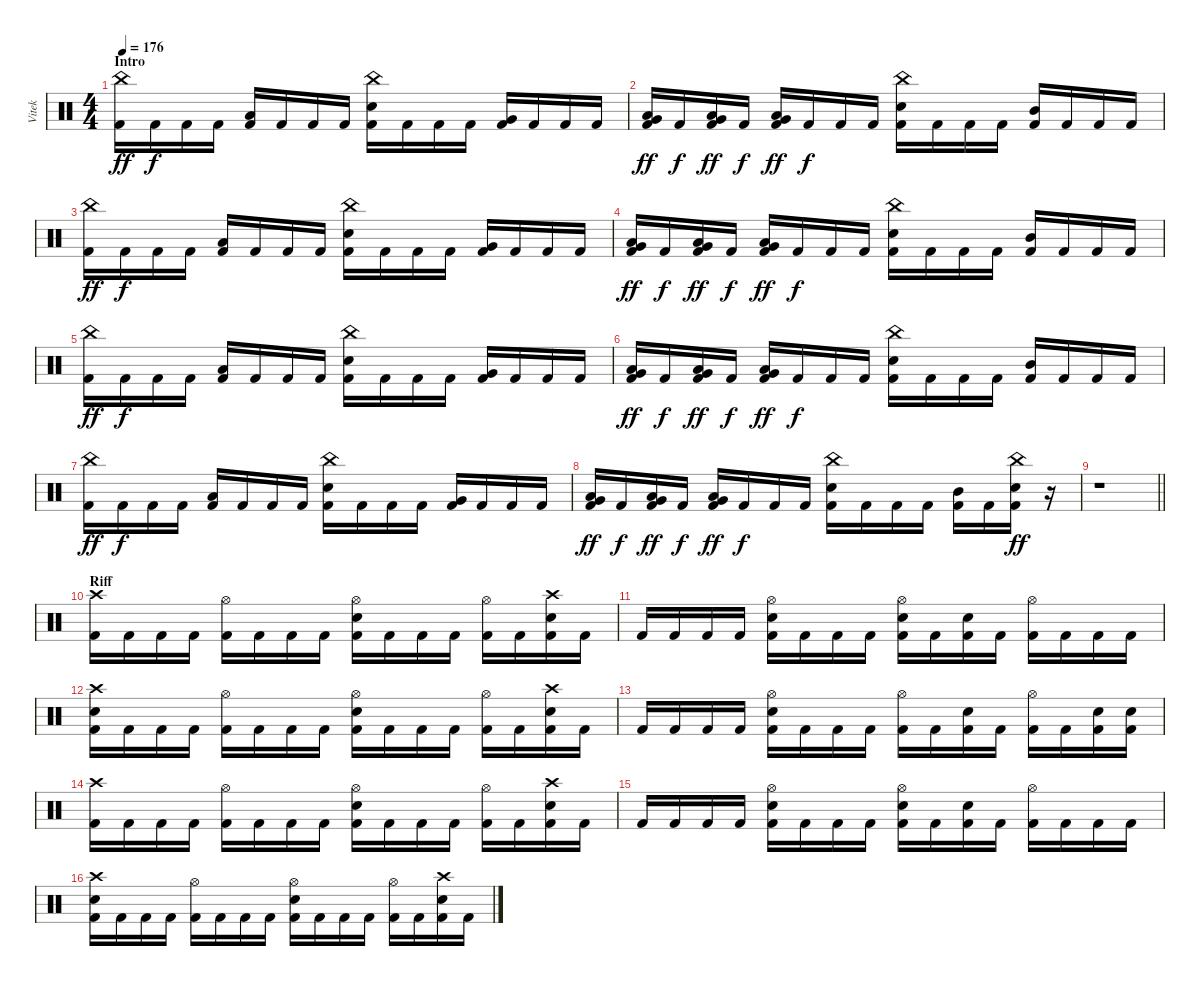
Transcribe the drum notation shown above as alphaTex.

\track ("Vitek" "Vitek") {instrument percussion}
\staff {score}
\articulation defaults
\ts (4 4)
\section ("" "Intro")
\tempo 176
\clef neutral
\ks c
("China (hit)" "Kick (hit) 2").16{dy ff} "Kick (hit) 2".16{dy f} "Kick (hit) 2".16 "Kick (hit) 2".16 ("Low Tom (hit)" "Kick (hit) 2").16 "Kick (hit) 2".16 "Kick (hit) 2".16 "Kick (hit) 2".16 ("China (hit)" "Electric Snare (hit)" "Kick (hit) 2").16 "Kick (hit) 2".16 "Kick (hit) 2".16 "Kick (hit) 2".16 ("Very Low Tom (hit)" "Kick (hit) 2").16 "Kick (hit) 2".16 "Kick (hit) 2".16 "Kick (hit) 2".16 |
("Low Tom (hit)" "Very Low Tom (hit)" "Kick (hit) 2").16{dy ff} "Kick (hit) 2".16{dy f} ("Low Tom (hit)" "Very Low Tom (hit)" "Kick (hit) 2").16{dy ff} "Kick (hit) 2".16{dy f} ("Low Tom (hit)" "Very Low Tom (hit)" "Kick (hit) 2").16{dy ff} "Kick (hit) 2".16{dy f} "Kick (hit) 2".16 "Kick (hit) 2".16 ("China (hit)" "Electric Snare (hit)" "Kick (hit) 2").16 "Kick (hit) 2".16 "Kick (hit) 2".16 "Kick (hit) 2".16 ("Mid Tom (hit)" "Kick (hit) 2").16 "Kick (hit) 2".16 "Kick (hit) 2".16 "Kick (hit) 2".16 |
("China (hit)" "Kick (hit) 2").16{dy ff} "Kick (hit) 2".16{dy f} "Kick (hit) 2".16 "Kick (hit) 2".16 ("Low Tom (hit)" "Kick (hit) 2").16 "Kick (hit) 2".16 "Kick (hit) 2".16 "Kick (hit) 2".16 ("China (hit)" "Electric Snare (hit)" "Kick (hit) 2").16 "Kick (hit) 2".16 "Kick (hit) 2".16 "Kick (hit) 2".16 ("Very Low Tom (hit)" "Kick (hit) 2").16 "Kick (hit) 2".16 "Kick (hit) 2".16 "Kick (hit) 2".16 |
("Low Tom (hit)" "Very Low Tom (hit)" "Kick (hit) 2").16{dy ff} "Kick (hit) 2".16{dy f} ("Low Tom (hit)" "Very Low Tom (hit)" "Kick (hit) 2").16{dy ff} "Kick (hit) 2".16{dy f} ("Low Tom (hit)" "Very Low Tom (hit)" "Kick (hit) 2").16{dy ff} "Kick (hit) 2".16{dy f} "Kick (hit) 2".16 "Kick (hit) 2".16 ("China (hit)" "Electric Snare (hit)" "Kick (hit) 2").16 "Kick (hit) 2".16 "Kick (hit) 2".16 "Kick (hit) 2".16 ("Mid Tom (hit)" "Kick (hit) 2").16 "Kick (hit) 2".16 "Kick (hit) 2".16 "Kick (hit) 2".16 |
("China (hit)" "Kick (hit) 2").16{dy ff} "Kick (hit) 2".16{dy f} "Kick (hit) 2".16 "Kick (hit) 2".16 ("Low Tom (hit)" "Kick (hit) 2").16 "Kick (hit) 2".16 "Kick (hit) 2".16 "Kick (hit) 2".16 ("China (hit)" "Electric Snare (hit)" "Kick (hit) 2").16 "Kick (hit) 2".16 "Kick (hit) 2".16 "Kick (hit) 2".16 ("Very Low Tom (hit)" "Kick (hit) 2").16 "Kick (hit) 2".16 "Kick (hit) 2".16 "Kick (hit) 2".16 |
("Low Tom (hit)" "Very Low Tom (hit)" "Kick (hit) 2").16{dy ff} "Kick (hit) 2".16{dy f} ("Low Tom (hit)" "Very Low Tom (hit)" "Kick (hit) 2").16{dy ff} "Kick (hit) 2".16{dy f} ("Low Tom (hit)" "Very Low Tom (hit)" "Kick (hit) 2").16{dy ff} "Kick (hit) 2".16{dy f} "Kick (hit) 2".16 "Kick (hit) 2".16 ("China (hit)" "Electric Snare (hit)" "Kick (hit) 2").16 "Kick (hit) 2".16 "Kick (hit) 2".16 "Kick (hit) 2".16 ("Mid Tom (hit)" "Kick (hit) 2").16 "Kick (hit) 2".16 "Kick (hit) 2".16 "Kick (hit) 2".16 |
("China (hit)" "Kick (hit) 2").16{dy ff} "Kick (hit) 2".16{dy f} "Kick (hit) 2".16 "Kick (hit) 2".16 ("Low Tom (hit)" "Kick (hit) 2").16 "Kick (hit) 2".16 "Kick (hit) 2".16 "Kick (hit) 2".16 ("China (hit)" "Electric Snare (hit)" "Kick (hit) 2").16 "Kick (hit) 2".16 "Kick (hit) 2".16 "Kick (hit) 2".16 ("Very Low Tom (hit)" "Kick (hit) 2").16 "Kick (hit) 2".16 "Kick (hit) 2".16 "Kick (hit) 2".16 |
("Low Tom (hit)" "Very Low Tom (hit)" "Kick (hit) 2").16{dy ff} "Kick (hit) 2".16{dy f} ("Low Tom (hit)" "Very Low Tom (hit)" "Kick (hit) 2").16{dy ff} "Kick (hit) 2".16{dy f} ("Low Tom (hit)" "Very Low Tom (hit)" "Kick (hit) 2").16{dy ff} "Kick (hit) 2".16{dy f} "Kick (hit) 2".16 "Kick (hit) 2".16 ("China (hit)" "Electric Snare (hit)" "Kick (hit) 2").16 "Kick (hit) 2".16 "Kick (hit) 2".16 "Kick (hit) 2".16 ("Mid Tom (hit)" "Kick (hit) 2").16 "Kick (hit) 2".16 ("China (hit)" "Electric Snare (hit)" "Kick (hit) 2").16{dy ff} r.16 |
\barLineRight lightlight
r.1 |
\section ("" "Riff")
("Crash high (hit)" "Kick (hit) 2").16 "Kick (hit) 2".16 "Kick (hit) 2".16 "Kick (hit) 2".16 ("Hi-Hat (open)" "Kick (hit) 2").16 "Kick (hit) 2".16 "Kick (hit) 2".16 "Kick (hit) 2".16 ("Hi-Hat (open)" "Electric Snare (hit)" "Kick (hit) 2").16 "Kick (hit) 2".16 "Kick (hit) 2".16 "Kick (hit) 2".16 ("Hi-Hat (open)" "Kick (hit) 2").16 "Kick (hit) 2".16 ("Crash high (hit)" "Electric Snare (hit)" "Kick (hit) 2").16 "Kick (hit) 2".16 |
"Kick (hit) 2".16 "Kick (hit) 2".16 "Kick (hit) 2".16 "Kick (hit) 2".16 ("Hi-Hat (open)" "Electric Snare (hit)" "Kick (hit) 2").16 "Kick (hit) 2".16 "Kick (hit) 2".16 "Kick (hit) 2".16 ("Hi-Hat (open)" "Electric Snare (hit)" "Kick (hit) 2").16 "Kick (hit) 2".16 ("Electric Snare (hit)" "Kick (hit) 2").16 "Kick (hit) 2".16 ("Hi-Hat (open)" "Kick (hit) 2").16 "Kick (hit) 2".16 "Kick (hit) 2".16 "Kick (hit) 2".16 |
("Crash high (hit)" "Electric Snare (hit)" "Kick (hit) 2").16 "Kick (hit) 2".16 "Kick (hit) 2".16 "Kick (hit) 2".16 ("Hi-Hat (open)" "Kick (hit) 2").16 "Kick (hit) 2".16 "Kick (hit) 2".16 "Kick (hit) 2".16 ("Hi-Hat (open)" "Electric Snare (hit)" "Kick (hit) 2").16 "Kick (hit) 2".16 "Kick (hit) 2".16 "Kick (hit) 2".16 ("Hi-Hat (open)" "Kick (hit) 2").16 "Kick (hit) 2".16 ("Crash high (hit)" "Electric Snare (hit)" "Kick (hit) 2").16 "Kick (hit) 2".16 |
"Kick (hit) 2".16 "Kick (hit) 2".16 "Kick (hit) 2".16 "Kick (hit) 2".16 ("Hi-Hat (open)" "Electric Snare (hit)" "Kick (hit) 2").16 "Kick (hit) 2".16 "Kick (hit) 2".16 "Kick (hit) 2".16 ("Hi-Hat (open)" "Kick (hit) 2").16 "Kick (hit) 2".16 ("Electric Snare (hit)" "Kick (hit) 2").16 "Kick (hit) 2".16 ("Hi-Hat (open)" "Kick (hit) 2").16 "Kick (hit) 2".16 ("Electric Snare (hit)" "Kick (hit) 2").16 ("Electric Snare (hit)" "Kick (hit) 2").16 |
("Crash high (hit)" "Kick (hit) 2").16 "Kick (hit) 2".16 "Kick (hit) 2".16 "Kick (hit) 2".16 ("Hi-Hat (open)" "Kick (hit) 2").16 "Kick (hit) 2".16 "Kick (hit) 2".16 "Kick (hit) 2".16 ("Hi-Hat (open)" "Electric Snare (hit)" "Kick (hit) 2").16 "Kick (hit) 2".16 "Kick (hit) 2".16 "Kick (hit) 2".16 ("Hi-Hat (open)" "Kick (hit) 2").16 "Kick (hit) 2".16 ("Crash high (hit)" "Electric Snare (hit)" "Kick (hit) 2").16 "Kick (hit) 2".16 |
"Kick (hit) 2".16 "Kick (hit) 2".16 "Kick (hit) 2".16 "Kick (hit) 2".16 ("Hi-Hat (open)" "Electric Snare (hit)" "Kick (hit) 2").16 "Kick (hit) 2".16 "Kick (hit) 2".16 "Kick (hit) 2".16 ("Hi-Hat (open)" "Electric Snare (hit)" "Kick (hit) 2").16 "Kick (hit) 2".16 ("Electric Snare (hit)" "Kick (hit) 2").16 "Kick (hit) 2".16 ("Hi-Hat (open)" "Kick (hit) 2").16 "Kick (hit) 2".16 "Kick (hit) 2".16 "Kick (hit) 2".16 |
("Crash high (hit)" "Electric Snare (hit)" "Kick (hit) 2").16 "Kick (hit) 2".16 "Kick (hit) 2".16 "Kick (hit) 2".16 ("Hi-Hat (open)" "Kick (hit) 2").16 "Kick (hit) 2".16 "Kick (hit) 2".16 "Kick (hit) 2".16 ("Hi-Hat (open)" "Electric Snare (hit)" "Kick (hit) 2").16 "Kick (hit) 2".16 "Kick (hit) 2".16 "Kick (hit) 2".16 ("Hi-Hat (open)" "Kick (hit) 2").16 "Kick (hit) 2".16 ("Crash high (hit)" "Electric Snare (hit)" "Kick (hit) 2").16 "Kick (hit) 2".16
